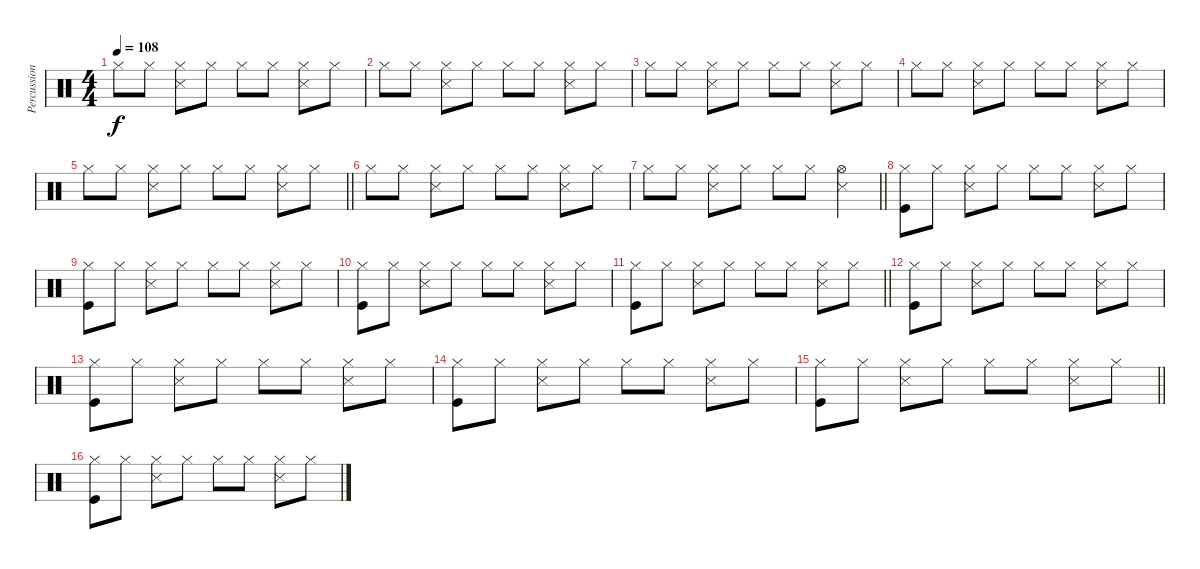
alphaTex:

\track ("Percussion" "Percussion") {instrument percussion}
\staff {score}
\articulation defaults
\ts (4 4)
\tempo 108
\clef neutral
\ks c "Hi-Hat (closed)".8{dy f} "Hi-Hat (closed)".8
("Hi-Hat (closed)" "Snare (side stick) 3").8 "Hi-Hat (closed)".8 "Hi-Hat (closed)".8 "Hi-Hat (closed)".8 ("Hi-Hat (closed)" "Snare (side stick) 3").8 "Hi-Hat (closed)".8 |
"Hi-Hat (closed)".8 "Hi-Hat (closed)".8 ("Hi-Hat (closed)" "Snare (side stick) 3").8 "Hi-Hat (closed)".8 "Hi-Hat (closed)".8 "Hi-Hat (closed)".8 ("Hi-Hat (closed)" "Snare (side stick) 3").8 "Hi-Hat (closed)".8 |
"Hi-Hat (closed)".8 "Hi-Hat (closed)".8 ("Hi-Hat (closed)" "Snare (side stick) 3").8 "Hi-Hat (closed)".8 "Hi-Hat (closed)".8 "Hi-Hat (closed)".8 ("Hi-Hat (closed)" "Snare (side stick) 3").8 "Hi-Hat (closed)".8 |
"Hi-Hat (closed)".8 "Hi-Hat (closed)".8 ("Hi-Hat (closed)" "Snare (side stick) 3").8 "Hi-Hat (closed)".8 "Hi-Hat (closed)".8 "Hi-Hat (closed)".8 ("Hi-Hat (closed)" "Snare (side stick) 3").8 "Hi-Hat (closed)".8 |
\barLineRight lightlight "Hi-Hat (closed)".8 "Hi-Hat (closed)".8
("Hi-Hat (closed)" "Snare (side stick) 3").8 "Hi-Hat (closed)".8 "Hi-Hat (closed)".8 "Hi-Hat (closed)".8 ("Hi-Hat (closed)" "Snare (side stick) 3").8 "Hi-Hat (closed)".8 |
"Hi-Hat (closed)".8 "Hi-Hat (closed)".8 ("Hi-Hat (closed)" "Snare (side stick) 3").8 "Hi-Hat (closed)".8 "Hi-Hat (closed)".8 "Hi-Hat (closed)".8 ("Hi-Hat (closed)" "Snare (side stick) 3").8 "Hi-Hat (closed)".8 |
\barLineRight lightlight "Hi-Hat (closed)".8 "Hi-Hat (closed)".8
("Hi-Hat (closed)" "Snare (side stick) 3").8 "Hi-Hat (closed)".8 "Hi-Hat (closed)".8 "Hi-Hat (closed)".8 ("Hi-Hat (open)" "Snare (side stick) 3").4 |
\section ("" "")
("Hi-Hat (closed)" "Kick (hit)").8 "Hi-Hat (closed)".8 ("Hi-Hat (closed)" "Snare (side stick) 3").8 "Hi-Hat (closed)".8 "Hi-Hat (closed)".8 "Hi-Hat (closed)".8 ("Hi-Hat (closed)" "Snare (side stick) 3").8 "Hi-Hat (closed)".8 |
("Hi-Hat (closed)" "Kick (hit)").8 "Hi-Hat (closed)".8 ("Hi-Hat (closed)" "Snare (side stick) 3").8 "Hi-Hat (closed)".8 "Hi-Hat (closed)".8 "Hi-Hat (closed)".8 ("Hi-Hat (closed)" "Snare (side stick) 3").8 "Hi-Hat (closed)".8 |
("Hi-Hat (closed)" "Kick (hit)").8 "Hi-Hat (closed)".8 ("Hi-Hat (closed)" "Snare (side stick) 3").8 "Hi-Hat (closed)".8 "Hi-Hat (closed)".8 "Hi-Hat (closed)".8 ("Hi-Hat (closed)" "Snare (side stick) 3").8 "Hi-Hat (closed)".8 |
\barLineRight lightlight
("Hi-Hat (closed)" "Kick (hit)").8 "Hi-Hat (closed)".8 ("Hi-Hat (closed)" "Snare (side stick) 3").8 "Hi-Hat (closed)".8 "Hi-Hat (closed)".8 "Hi-Hat (closed)".8 ("Hi-Hat (closed)" "Snare (side stick) 3").8 "Hi-Hat (closed)".8 |
("Hi-Hat (closed)" "Kick (hit)").8 "Hi-Hat (closed)".8 ("Hi-Hat (closed)" "Snare (side stick) 3").8 "Hi-Hat (closed)".8 "Hi-Hat (closed)".8 "Hi-Hat (closed)".8 ("Hi-Hat (closed)" "Snare (side stick) 3").8 "Hi-Hat (closed)".8 |
("Hi-Hat (closed)" "Kick (hit)").8 "Hi-Hat (closed)".8 ("Hi-Hat (closed)" "Snare (side stick) 3").8 "Hi-Hat (closed)".8 "Hi-Hat (closed)".8 "Hi-Hat (closed)".8 ("Hi-Hat (closed)" "Snare (side stick) 3").8 "Hi-Hat (closed)".8 |
("Hi-Hat (closed)" "Kick (hit)").8 "Hi-Hat (closed)".8 ("Hi-Hat (closed)" "Snare (side stick) 3").8 "Hi-Hat (closed)".8 "Hi-Hat (closed)".8 "Hi-Hat (closed)".8 ("Hi-Hat (closed)" "Snare (side stick) 3").8 "Hi-Hat (closed)".8 |
\barLineRight lightlight
("Hi-Hat (closed)" "Kick (hit)").8 "Hi-Hat (closed)".8 ("Hi-Hat (closed)" "Snare (side stick) 3").8 "Hi-Hat (closed)".8 "Hi-Hat (closed)".8 "Hi-Hat (closed)".8 ("Hi-Hat (closed)" "Snare (side stick) 3").8 "Hi-Hat (closed)".8 |
("Hi-Hat (closed)" "Kick (hit)").8 "Hi-Hat (closed)".8 ("Hi-Hat (closed)" "Snare (side stick) 3").8 "Hi-Hat (closed)".8 "Hi-Hat (closed)".8 "Hi-Hat (closed)".8 ("Hi-Hat (closed)" "Snare (side stick) 3").8 "Hi-Hat (closed)".8
